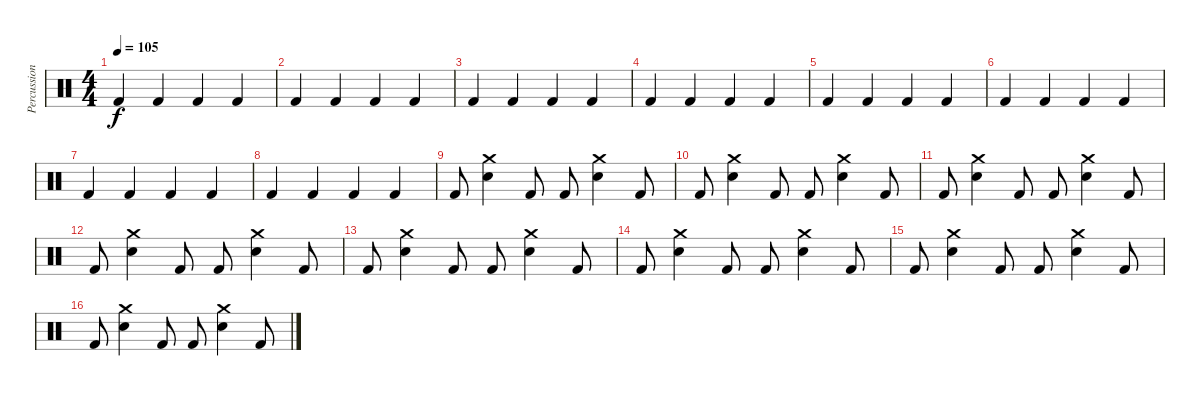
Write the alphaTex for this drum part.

\track ("Percussion" "Percussion") {instrument percussion}
\staff {score}
\articulation defaults
\ts (4 4)
\tempo 105
\clef neutral
\ks c "Kick (hit) 2".4{dy f} "Kick (hit) 2".4 "Kick (hit) 2".4 "Kick (hit) 2".4
|
"Kick (hit) 2".4 "Kick (hit) 2".4 "Kick (hit) 2".4 "Kick (hit) 2".4 |
"Kick (hit) 2".4 "Kick (hit) 2".4 "Kick (hit) 2".4 "Kick (hit) 2".4 |
"Kick (hit) 2".4 "Kick (hit) 2".4 "Kick (hit) 2".4 "Kick (hit) 2".4 |
"Kick (hit) 2".4 "Kick (hit) 2".4 "Kick (hit) 2".4 "Kick (hit) 2".4 |
"Kick (hit) 2".4 "Kick (hit) 2".4 "Kick (hit) 2".4 "Kick (hit) 2".4 |
"Kick (hit) 2".4 "Kick (hit) 2".4 "Kick (hit) 2".4 "Kick (hit) 2".4 |
"Kick (hit) 2".4 "Kick (hit) 2".4 "Kick (hit) 2".4 "Kick (hit) 2".4 |
"Kick (hit) 2".8 ("Crash medium (hit)" "Electric Snare (hit)").4 "Kick (hit) 2".8 "Kick (hit) 2".8 ("Crash medium (hit)" "Electric Snare (hit)").4 "Kick (hit) 2".8 |
"Kick (hit) 2".8 ("Crash medium (hit)" "Electric Snare (hit)").4 "Kick (hit) 2".8 "Kick (hit) 2".8 ("Crash medium (hit)" "Electric Snare (hit)").4 "Kick (hit) 2".8 |
"Kick (hit) 2".8 ("Crash medium (hit)" "Electric Snare (hit)").4 "Kick (hit) 2".8 "Kick (hit) 2".8 ("Crash medium (hit)" "Electric Snare (hit)").4 "Kick (hit) 2".8 |
"Kick (hit) 2".8 ("Crash medium (hit)" "Electric Snare (hit)").4 "Kick (hit) 2".8 "Kick (hit) 2".8 ("Crash medium (hit)" "Electric Snare (hit)").4 "Kick (hit) 2".8 |
"Kick (hit) 2".8 ("Crash medium (hit)" "Electric Snare (hit)").4 "Kick (hit) 2".8 "Kick (hit) 2".8 ("Crash medium (hit)" "Electric Snare (hit)").4 "Kick (hit) 2".8 |
"Kick (hit) 2".8 ("Crash medium (hit)" "Electric Snare (hit)").4 "Kick (hit) 2".8 "Kick (hit) 2".8 ("Crash medium (hit)" "Electric Snare (hit)").4 "Kick (hit) 2".8 |
"Kick (hit) 2".8 ("Crash medium (hit)" "Electric Snare (hit)").4 "Kick (hit) 2".8 "Kick (hit) 2".8 ("Crash medium (hit)" "Electric Snare (hit)").4 "Kick (hit) 2".8 |
"Kick (hit) 2".8 ("Crash medium (hit)" "Electric Snare (hit)").4 "Kick (hit) 2".8 "Kick (hit) 2".8 ("Crash medium (hit)" "Electric Snare (hit)").4 "Kick (hit) 2".8
